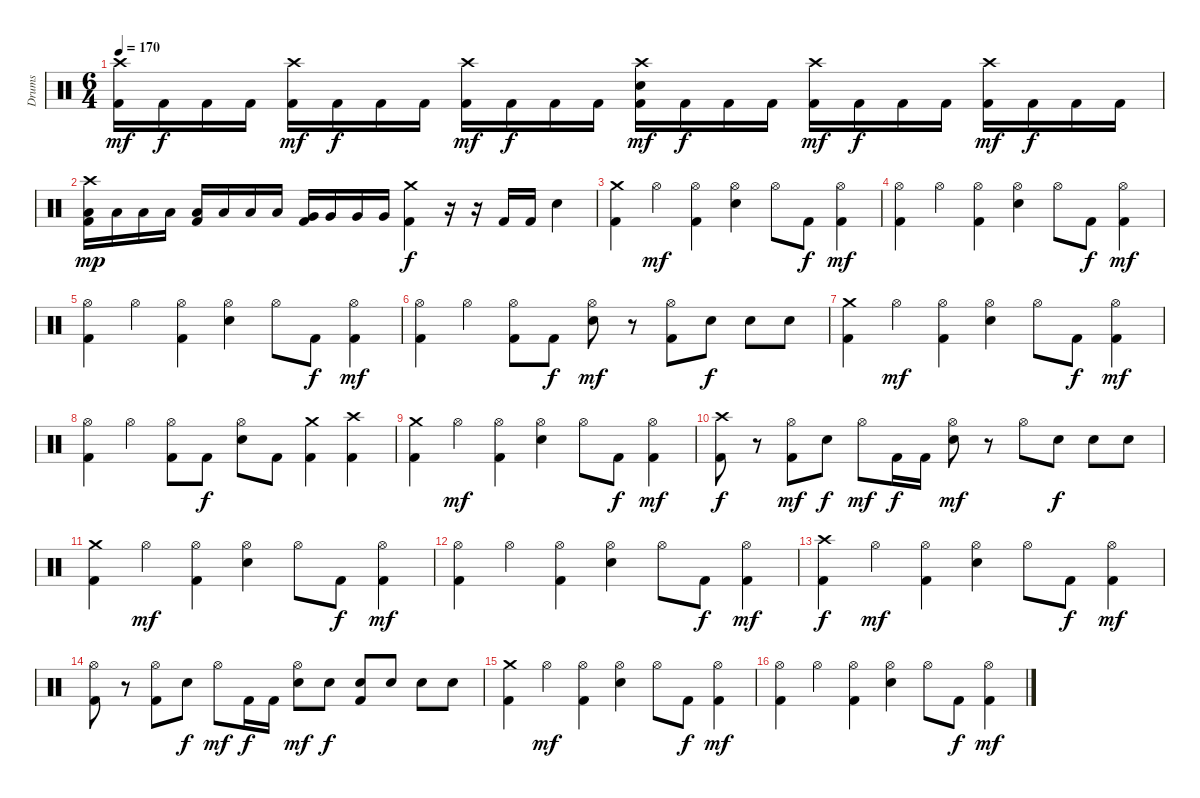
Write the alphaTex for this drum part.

\track ("Drums" "Drums") {instrument percussion}
\staff {score}
\articulation defaults
\ts (6 4)
\tempo 170
\clef neutral
\ks c
("Crash high (hit)" "Kick (hit) 2").16{dy mf} "Kick (hit) 2".16{dy f} "Kick (hit) 2".16 "Kick (hit) 2".16 ("Crash high (hit)" "Kick (hit) 2").16{dy mf} "Kick (hit) 2".16{dy f} "Kick (hit) 2".16 "Kick (hit) 2".16 ("Crash high (hit)" "Kick (hit) 2").16{dy mf} "Kick (hit) 2".16{dy f} "Kick (hit) 2".16 "Kick (hit) 2".16 ("Crash high (hit)" "Electric Snare (hit)" "Kick (hit) 2").16{dy mf} "Kick (hit) 2".16{dy f} "Kick (hit) 2".16 "Kick (hit) 2".16 ("Crash high (hit)" "Kick (hit) 2").16{dy mf} "Kick (hit) 2".16{dy f} "Kick (hit) 2".16 "Kick (hit) 2".16 ("Crash high (hit)" "Kick (hit) 2").16{dy mf} "Kick (hit) 2".16{dy f} "Kick (hit) 2".16 "Kick (hit) 2".16 |
("Crash high (hit)" "Low Tom (hit)" "Kick (hit) 2").16{dy mp} "Low Tom (hit)".16 "Low Tom (hit)".16 "Low Tom (hit)".16 ("Low Floor Tom (hit)" "Kick (hit) 2").16 "Low Floor Tom (hit)".16 "Low Floor Tom (hit)".16 "Low Floor Tom (hit)".16 ("Very Low Tom (hit)" "Kick (hit) 2").16 "Very Low Tom (hit)".16 "Very Low Tom (hit)".16 "Very Low Tom (hit)".16 ("Crash medium (hit)" "Kick (hit) 2").4{dy f} r.16 r.16 "Kick (hit) 2".16 "Kick (hit) 2".16 "Electric Snare (hit)".4 |
("Crash medium (hit)" "Kick (hit) 2").4 "Hi-Hat (open)".4{dy mf} ("Hi-Hat (open)" "Kick (hit) 2").4 ("Hi-Hat (open)" "Electric Snare (hit)").4 "Hi-Hat (open)".8 "Kick (hit) 2".8{dy f} ("Hi-Hat (open)" "Kick (hit) 2").4{dy mf} |
("Hi-Hat (open)" "Kick (hit) 2").4 "Hi-Hat (open)".4 ("Hi-Hat (open)" "Kick (hit) 2").4 ("Hi-Hat (open)" "Electric Snare (hit)").4 "Hi-Hat (open)".8 "Kick (hit) 2".8{dy f} ("Hi-Hat (open)" "Kick (hit) 2").4{dy mf} |
("Hi-Hat (open)" "Kick (hit) 2").4 "Hi-Hat (open)".4 ("Hi-Hat (open)" "Kick (hit) 2").4 ("Hi-Hat (open)" "Electric Snare (hit)").4 "Hi-Hat (open)".8 "Kick (hit) 2".8{dy f} ("Hi-Hat (open)" "Kick (hit) 2").4{dy mf} |
("Hi-Hat (open)" "Kick (hit) 2").4 "Hi-Hat (open)".4 ("Hi-Hat (open)" "Kick (hit) 2").8 "Kick (hit) 2".8{dy f} ("Hi-Hat (open)" "Electric Snare (hit)").8{dy mf} r.8 ("Hi-Hat (open)" "Kick (hit) 2").8 "Electric Snare (hit)".8{dy f} "Electric Snare (hit)".8 "Electric Snare (hit)".8 |
("Crash medium (hit)" "Kick (hit) 2").4 "Hi-Hat (open)".4{dy mf} ("Hi-Hat (open)" "Kick (hit) 2").4 ("Hi-Hat (open)" "Electric Snare (hit)").4 "Hi-Hat (open)".8 "Kick (hit) 2".8{dy f} ("Hi-Hat (open)" "Kick (hit) 2").4{dy mf} |
("Hi-Hat (open)" "Kick (hit) 2").4 "Hi-Hat (open)".4 ("Hi-Hat (open)" "Kick (hit) 2").8 "Kick (hit) 2".8{dy f} ("Hi-Hat (open)" "Electric Snare (hit)").8 "Kick (hit) 2".8 ("Crash medium (hit)" "Kick (hit) 2").4 ("Crash high (hit)" "Kick (hit) 2").4 |
("Crash medium (hit)" "Kick (hit) 2").4 "Hi-Hat (open)".4{dy mf} ("Hi-Hat (open)" "Kick (hit) 2").4 ("Hi-Hat (open)" "Electric Snare (hit)").4 "Hi-Hat (open)".8 "Kick (hit) 2".8{dy f} ("Hi-Hat (open)" "Kick (hit) 2").4{dy mf} |
("Crash high (hit)" "Kick (hit) 2").8{dy f} r.8 ("Hi-Hat (open)" "Kick (hit) 2").8{dy mf} "Electric Snare (hit)".8{dy f} "Hi-Hat (open)".8{dy mf} "Kick (hit) 2".16{dy f} "Kick (hit) 2".16 ("Hi-Hat (open)" "Electric Snare (hit)").8{dy mf} r.8 "Hi-Hat (open)".8 "Electric Snare (hit)".8{dy f} "Electric Snare (hit)".8 "Electric Snare (hit)".8 |
("Crash medium (hit)" "Kick (hit) 2").4 "Hi-Hat (open)".4{dy mf} ("Hi-Hat (open)" "Kick (hit) 2").4 ("Hi-Hat (open)" "Electric Snare (hit)").4 "Hi-Hat (open)".8 "Kick (hit) 2".8{dy f} ("Hi-Hat (open)" "Kick (hit) 2").4{dy mf} |
("Hi-Hat (open)" "Kick (hit) 2").4 "Hi-Hat (open)".4 ("Hi-Hat (open)" "Kick (hit) 2").4 ("Hi-Hat (open)" "Electric Snare (hit)").4 "Hi-Hat (open)".8 "Kick (hit) 2".8{dy f} ("Hi-Hat (open)" "Kick (hit) 2").4{dy mf} |
("Crash high (hit)" "Kick (hit) 2").4{dy f} "Hi-Hat (open)".4{dy mf} ("Hi-Hat (open)" "Kick (hit) 2").4 ("Hi-Hat (open)" "Electric Snare (hit)").4 "Hi-Hat (open)".8 "Kick (hit) 2".8{dy f} ("Hi-Hat (open)" "Kick (hit) 2").4{dy mf} |
("Hi-Hat (open)" "Kick (hit) 2").8 r.8 ("Hi-Hat (open)" "Kick (hit) 2").8 "Electric Snare (hit)".8{dy f} "Hi-Hat (open)".8{dy mf} "Kick (hit) 2".16{dy f} "Kick (hit) 2".16 ("Hi-Hat (open)" "Electric Snare (hit)").8{dy mf} "Electric Snare (hit)".8{dy f} ("Electric Snare (hit)" "Kick (hit) 2").8 "Electric Snare (hit)".8 "Electric Snare (hit)".8 "Electric Snare (hit)".8 |
("Crash medium (hit)" "Kick (hit) 2").4 "Hi-Hat (open)".4{dy mf} ("Hi-Hat (open)" "Kick (hit) 2").4 ("Hi-Hat (open)" "Electric Snare (hit)").4 "Hi-Hat (open)".8 "Kick (hit) 2".8{dy f} ("Hi-Hat (open)" "Kick (hit) 2").4{dy mf} |
("Hi-Hat (open)" "Kick (hit) 2").4 "Hi-Hat (open)".4 ("Hi-Hat (open)" "Kick (hit) 2").4 ("Hi-Hat (open)" "Electric Snare (hit)").4 "Hi-Hat (open)".8 "Kick (hit) 2".8{dy f} ("Hi-Hat (open)" "Kick (hit) 2").4{dy mf}
